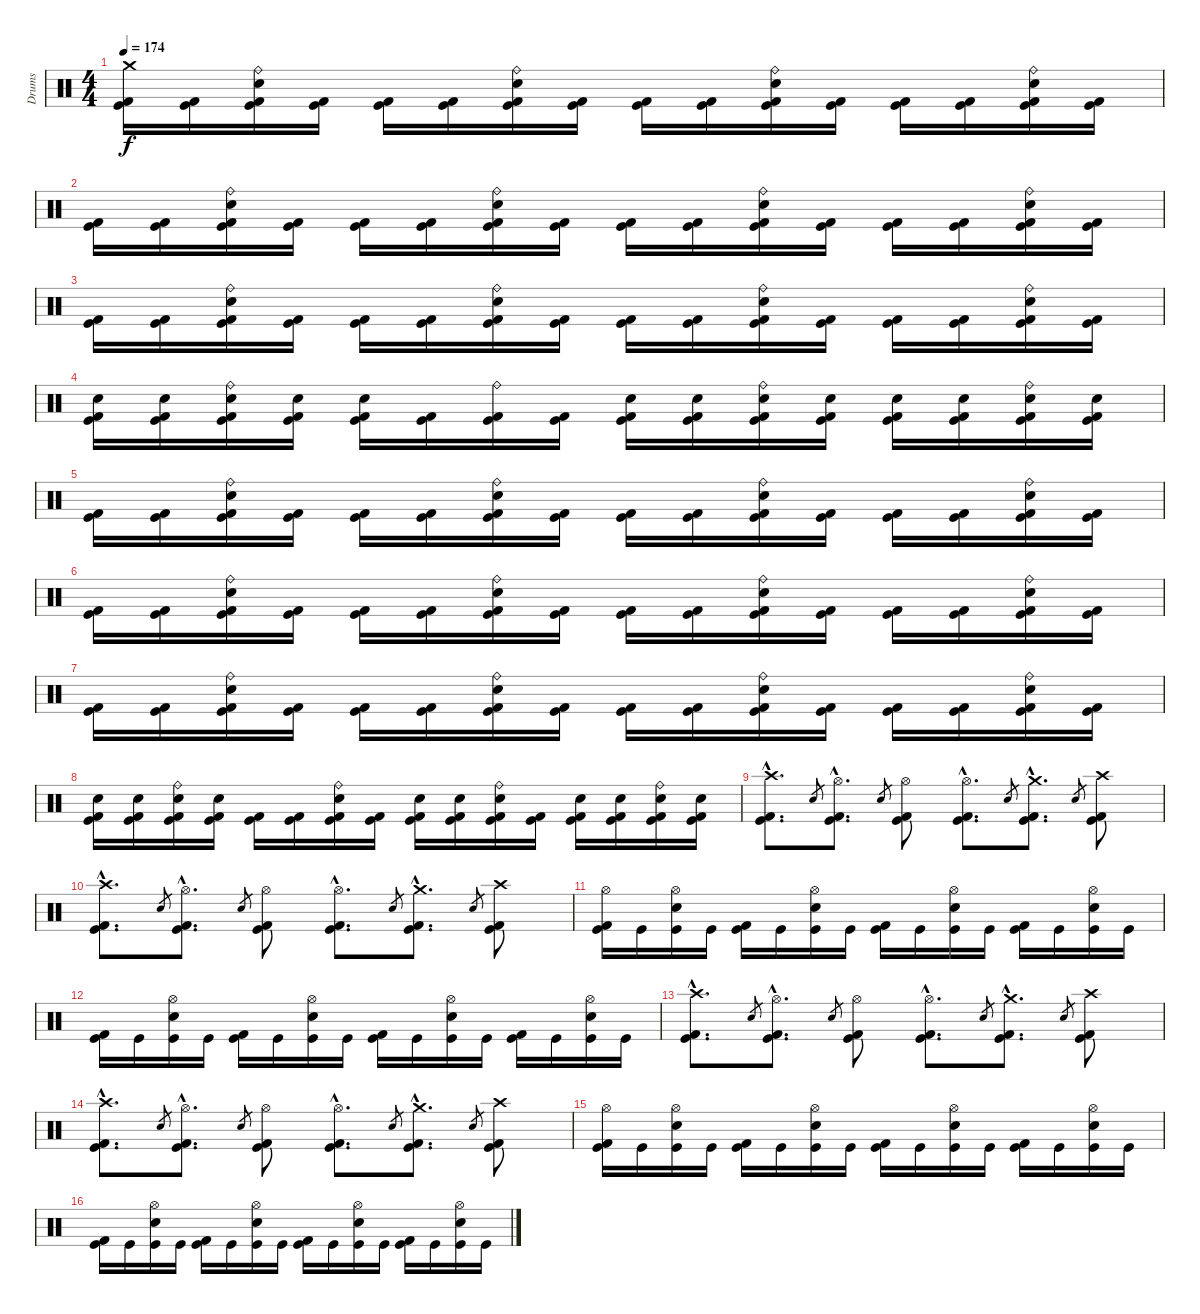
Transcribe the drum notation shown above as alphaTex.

\track ("Drums" "Drums") {instrument percussion}
\staff {score}
\articulation defaults
\ts (4 4)
\tempo 174
\clef neutral
\ks c
("Kick (hit)" "Kick (hit) 2" "Crash medium (hit)").16{dy f} ("Kick (hit)" "Kick (hit) 2").16 ("Kick (hit)" "Kick (hit) 2" "Electric Snare (hit)" "Ride (bell)").16 ("Kick (hit)" "Kick (hit) 2").16 ("Kick (hit)" "Kick (hit) 2").16 ("Kick (hit)" "Kick (hit) 2").16 ("Kick (hit)" "Kick (hit) 2" "Electric Snare (hit)" "Ride (bell)").16 ("Kick (hit)" "Kick (hit) 2").16 ("Kick (hit)" "Kick (hit) 2").16 ("Kick (hit)" "Kick (hit) 2").16 ("Kick (hit)" "Kick (hit) 2" "Electric Snare (hit)" "Ride (bell)").16 ("Kick (hit)" "Kick (hit) 2").16 ("Kick (hit)" "Kick (hit) 2").16 ("Kick (hit)" "Kick (hit) 2").16 ("Kick (hit)" "Kick (hit) 2" "Electric Snare (hit)" "Ride (bell)").16 ("Kick (hit)" "Kick (hit) 2").16 |
("Kick (hit)" "Kick (hit) 2").16 ("Kick (hit)" "Kick (hit) 2").16 ("Kick (hit)" "Kick (hit) 2" "Electric Snare (hit)" "Ride (bell)").16 ("Kick (hit)" "Kick (hit) 2").16 ("Kick (hit)" "Kick (hit) 2").16 ("Kick (hit)" "Kick (hit) 2").16 ("Kick (hit)" "Kick (hit) 2" "Electric Snare (hit)" "Ride (bell)").16 ("Kick (hit)" "Kick (hit) 2").16 ("Kick (hit)" "Kick (hit) 2").16 ("Kick (hit)" "Kick (hit) 2").16 ("Kick (hit)" "Kick (hit) 2" "Electric Snare (hit)" "Ride (bell)").16 ("Kick (hit)" "Kick (hit) 2").16 ("Kick (hit)" "Kick (hit) 2").16 ("Kick (hit)" "Kick (hit) 2").16 ("Kick (hit)" "Kick (hit) 2" "Electric Snare (hit)" "Ride (bell)").16 ("Kick (hit)" "Kick (hit) 2").16 |
("Kick (hit)" "Kick (hit) 2").16 ("Kick (hit)" "Kick (hit) 2").16 ("Kick (hit)" "Kick (hit) 2" "Electric Snare (hit)" "Ride (bell)").16 ("Kick (hit)" "Kick (hit) 2").16 ("Kick (hit)" "Kick (hit) 2").16 ("Kick (hit)" "Kick (hit) 2").16 ("Kick (hit)" "Kick (hit) 2" "Electric Snare (hit)" "Ride (bell)").16 ("Kick (hit)" "Kick (hit) 2").16 ("Kick (hit)" "Kick (hit) 2").16 ("Kick (hit)" "Kick (hit) 2").16 ("Kick (hit)" "Kick (hit) 2" "Electric Snare (hit)" "Ride (bell)").16 ("Kick (hit)" "Kick (hit) 2").16 ("Kick (hit)" "Kick (hit) 2").16 ("Kick (hit)" "Kick (hit) 2").16 ("Kick (hit)" "Kick (hit) 2" "Electric Snare (hit)" "Ride (bell)").16 ("Kick (hit)" "Kick (hit) 2").16 |
("Kick (hit)" "Kick (hit) 2" "Electric Snare (hit)").16 ("Kick (hit)" "Kick (hit) 2" "Electric Snare (hit)").16 ("Kick (hit)" "Kick (hit) 2" "Electric Snare (hit)" "Ride (bell)").16 ("Kick (hit)" "Kick (hit) 2" "Electric Snare (hit)").16 ("Kick (hit)" "Kick (hit) 2" "Electric Snare (hit)").16 ("Kick (hit)" "Kick (hit) 2").16 ("Kick (hit)" "Kick (hit) 2" "Ride (bell)").16 ("Kick (hit)" "Kick (hit) 2").16 ("Kick (hit)" "Kick (hit) 2" "Electric Snare (hit)").16 ("Kick (hit)" "Kick (hit) 2" "Electric Snare (hit)").16 ("Kick (hit)" "Kick (hit) 2" "Electric Snare (hit)" "Ride (bell)").16 ("Kick (hit)" "Kick (hit) 2" "Electric Snare (hit)").16 ("Kick (hit)" "Kick (hit) 2" "Electric Snare (hit)").16 ("Kick (hit)" "Kick (hit) 2" "Electric Snare (hit)").16 ("Kick (hit)" "Kick (hit) 2" "Electric Snare (hit)" "Ride (bell)").16 ("Kick (hit)" "Kick (hit) 2" "Electric Snare (hit)").16 |
("Kick (hit)" "Kick (hit) 2").16 ("Kick (hit)" "Kick (hit) 2").16 ("Kick (hit)" "Kick (hit) 2" "Electric Snare (hit)" "Ride (bell)").16 ("Kick (hit)" "Kick (hit) 2").16 ("Kick (hit)" "Kick (hit) 2").16 ("Kick (hit)" "Kick (hit) 2").16 ("Kick (hit)" "Kick (hit) 2" "Electric Snare (hit)" "Ride (bell)").16 ("Kick (hit)" "Kick (hit) 2").16 ("Kick (hit)" "Kick (hit) 2").16 ("Kick (hit)" "Kick (hit) 2").16 ("Kick (hit)" "Kick (hit) 2" "Electric Snare (hit)" "Ride (bell)").16 ("Kick (hit)" "Kick (hit) 2").16 ("Kick (hit)" "Kick (hit) 2").16 ("Kick (hit)" "Kick (hit) 2").16 ("Kick (hit)" "Kick (hit) 2" "Electric Snare (hit)" "Ride (bell)").16 ("Kick (hit)" "Kick (hit) 2").16 |
("Kick (hit)" "Kick (hit) 2").16 ("Kick (hit)" "Kick (hit) 2").16 ("Kick (hit)" "Kick (hit) 2" "Electric Snare (hit)" "Ride (bell)").16 ("Kick (hit)" "Kick (hit) 2").16 ("Kick (hit)" "Kick (hit) 2").16 ("Kick (hit)" "Kick (hit) 2").16 ("Kick (hit)" "Kick (hit) 2" "Electric Snare (hit)" "Ride (bell)").16 ("Kick (hit)" "Kick (hit) 2").16 ("Kick (hit)" "Kick (hit) 2").16 ("Kick (hit)" "Kick (hit) 2").16 ("Kick (hit)" "Kick (hit) 2" "Electric Snare (hit)" "Ride (bell)").16 ("Kick (hit)" "Kick (hit) 2").16 ("Kick (hit)" "Kick (hit) 2").16 ("Kick (hit)" "Kick (hit) 2").16 ("Kick (hit)" "Kick (hit) 2" "Electric Snare (hit)" "Ride (bell)").16 ("Kick (hit)" "Kick (hit) 2").16 |
("Kick (hit)" "Kick (hit) 2").16 ("Kick (hit)" "Kick (hit) 2").16 ("Kick (hit)" "Kick (hit) 2" "Electric Snare (hit)" "Ride (bell)").16 ("Kick (hit)" "Kick (hit) 2").16 ("Kick (hit)" "Kick (hit) 2").16 ("Kick (hit)" "Kick (hit) 2").16 ("Kick (hit)" "Kick (hit) 2" "Electric Snare (hit)" "Ride (bell)").16 ("Kick (hit)" "Kick (hit) 2").16 ("Kick (hit)" "Kick (hit) 2").16 ("Kick (hit)" "Kick (hit) 2").16 ("Kick (hit)" "Kick (hit) 2" "Electric Snare (hit)" "Ride (bell)").16 ("Kick (hit)" "Kick (hit) 2").16 ("Kick (hit)" "Kick (hit) 2").16 ("Kick (hit)" "Kick (hit) 2").16 ("Kick (hit)" "Kick (hit) 2" "Electric Snare (hit)" "Ride (bell)").16 ("Kick (hit)" "Kick (hit) 2").16 |
("Kick (hit)" "Kick (hit) 2" "Electric Snare (hit)").16 ("Kick (hit)" "Kick (hit) 2" "Electric Snare (hit)").16 ("Kick (hit)" "Kick (hit) 2" "Electric Snare (hit)" "Ride (bell)").16 ("Kick (hit)" "Kick (hit) 2" "Electric Snare (hit)").16 ("Kick (hit)" "Kick (hit) 2").16 ("Kick (hit)" "Kick (hit) 2").16 ("Kick (hit)" "Kick (hit) 2" "Electric Snare (hit)" "Ride (bell)").16 ("Kick (hit)" "Kick (hit) 2").16 ("Kick (hit)" "Kick (hit) 2" "Electric Snare (hit)").16 ("Kick (hit)" "Kick (hit) 2" "Electric Snare (hit)").16 ("Kick (hit)" "Kick (hit) 2" "Electric Snare (hit)" "Ride (bell)").16 ("Kick (hit)" "Kick (hit) 2").16 ("Kick (hit)" "Kick (hit) 2" "Electric Snare (hit)").16 ("Kick (hit)" "Kick (hit) 2" "Electric Snare (hit)").16 ("Kick (hit)" "Kick (hit) 2" "Electric Snare (hit)" "Ride (bell)").16 ("Kick (hit)" "Kick (hit) 2" "Electric Snare (hit)").16 |
("Kick (hit)"{hac} "Kick (hit) 2"{hac} "Crash high (hit)"{hac}).8{d} "Electric Snare (hit)".8{gr} ("Kick (hit)"{hac} "Kick (hit) 2"{hac} "Hi-Hat (open)"{hac}).8{d} "Electric Snare (hit)".8{gr} ("Kick (hit)" "Kick (hit) 2" "Hi-Hat (open)").8 ("Kick (hit)"{hac} "Kick (hit) 2"{hac} "Hi-Hat (open)"{hac}).8{d} "Electric Snare (hit)".8{gr} ("Kick (hit)"{hac} "Kick (hit) 2"{hac} "Crash medium (hit)"{hac}).8{d} "Electric Snare (hit)".8{gr} ("Kick (hit)" "Kick (hit) 2" "Crash high (hit)").8 |
("Kick (hit)"{hac} "Kick (hit) 2"{hac} "Crash high (hit)"{hac}).8{d} "Electric Snare (hit)".8{gr} ("Kick (hit)"{hac} "Kick (hit) 2"{hac} "Hi-Hat (open)"{hac}).8{d} "Electric Snare (hit)".8{gr} ("Kick (hit)" "Kick (hit) 2" "Hi-Hat (open)").8 ("Kick (hit)"{hac} "Kick (hit) 2"{hac} "Hi-Hat (open)"{hac}).8{d} "Electric Snare (hit)".8{gr} ("Kick (hit)"{hac} "Kick (hit) 2"{hac} "Crash medium (hit)"{hac}).8{d} "Electric Snare (hit)".8{gr} ("Kick (hit)" "Kick (hit) 2" "Crash high (hit)").8 |
("Kick (hit)" "Kick (hit) 2" "Hi-Hat (open)").16 "Kick (hit)".16 ("Kick (hit)" "Electric Snare (hit)" "Hi-Hat (open)").16 "Kick (hit)".16 ("Kick (hit)" "Kick (hit) 2").16 "Kick (hit)".16 ("Kick (hit)" "Electric Snare (hit)" "Hi-Hat (open)").16 "Kick (hit)".16 ("Kick (hit)" "Kick (hit) 2").16 "Kick (hit)".16 ("Kick (hit)" "Electric Snare (hit)" "Hi-Hat (open)").16 "Kick (hit)".16 ("Kick (hit)" "Kick (hit) 2").16 "Kick (hit)".16 ("Kick (hit)" "Electric Snare (hit)" "Hi-Hat (open)").16 "Kick (hit)".16 |
("Kick (hit)" "Kick (hit) 2").16 "Kick (hit)".16 ("Kick (hit)" "Electric Snare (hit)" "Hi-Hat (open)").16 "Kick (hit)".16 ("Kick (hit)" "Kick (hit) 2").16 "Kick (hit)".16 ("Kick (hit)" "Electric Snare (hit)" "Hi-Hat (open)").16 "Kick (hit)".16 ("Kick (hit)" "Kick (hit) 2").16 "Kick (hit)".16 ("Kick (hit)" "Electric Snare (hit)" "Hi-Hat (open)").16 "Kick (hit)".16 ("Kick (hit)" "Kick (hit) 2").16 "Kick (hit)".16 ("Kick (hit)" "Electric Snare (hit)" "Hi-Hat (open)").16 "Kick (hit)".16 |
("Kick (hit)"{hac} "Kick (hit) 2"{hac} "Crash high (hit)"{hac}).8{d} "Electric Snare (hit)".8{gr} ("Kick (hit)"{hac} "Kick (hit) 2"{hac} "Hi-Hat (open)"{hac}).8{d} "Electric Snare (hit)".8{gr} ("Kick (hit)" "Kick (hit) 2" "Hi-Hat (open)").8 ("Kick (hit)"{hac} "Kick (hit) 2"{hac} "Hi-Hat (open)"{hac}).8{d} "Electric Snare (hit)".8{gr} ("Kick (hit)"{hac} "Kick (hit) 2"{hac} "Crash medium (hit)"{hac}).8{d} "Electric Snare (hit)".8{gr} ("Kick (hit)" "Kick (hit) 2" "Crash high (hit)").8 |
("Kick (hit)"{hac} "Kick (hit) 2"{hac} "Crash high (hit)"{hac}).8{d} "Electric Snare (hit)".8{gr} ("Kick (hit)"{hac} "Kick (hit) 2"{hac} "Hi-Hat (open)"{hac}).8{d} "Electric Snare (hit)".8{gr} ("Kick (hit)" "Kick (hit) 2" "Hi-Hat (open)").8 ("Kick (hit)"{hac} "Kick (hit) 2"{hac} "Hi-Hat (open)"{hac}).8{d} "Electric Snare (hit)".8{gr} ("Kick (hit)"{hac} "Kick (hit) 2"{hac} "Crash medium (hit)"{hac}).8{d} "Electric Snare (hit)".8{gr} ("Kick (hit)" "Kick (hit) 2" "Crash high (hit)").8 |
("Kick (hit)" "Kick (hit) 2" "Hi-Hat (open)").16 "Kick (hit)".16 ("Kick (hit)" "Electric Snare (hit)" "Hi-Hat (open)").16 "Kick (hit)".16 ("Kick (hit)" "Kick (hit) 2").16 "Kick (hit)".16 ("Kick (hit)" "Electric Snare (hit)" "Hi-Hat (open)").16 "Kick (hit)".16 ("Kick (hit)" "Kick (hit) 2").16 "Kick (hit)".16 ("Kick (hit)" "Electric Snare (hit)" "Hi-Hat (open)").16 "Kick (hit)".16 ("Kick (hit)" "Kick (hit) 2").16 "Kick (hit)".16 ("Kick (hit)" "Electric Snare (hit)" "Hi-Hat (open)").16 "Kick (hit)".16 |
("Kick (hit)" "Kick (hit) 2").16 "Kick (hit)".16 ("Kick (hit)" "Electric Snare (hit)" "Hi-Hat (open)").16 "Kick (hit)".16 ("Kick (hit)" "Kick (hit) 2").16 "Kick (hit)".16 ("Kick (hit)" "Electric Snare (hit)" "Hi-Hat (open)").16 "Kick (hit)".16 ("Kick (hit)" "Kick (hit) 2").16 "Kick (hit)".16 ("Kick (hit)" "Electric Snare (hit)" "Hi-Hat (open)").16 "Kick (hit)".16 ("Kick (hit)" "Kick (hit) 2").16 "Kick (hit)".16 ("Kick (hit)" "Electric Snare (hit)" "Hi-Hat (open)").16 "Kick (hit)".16
